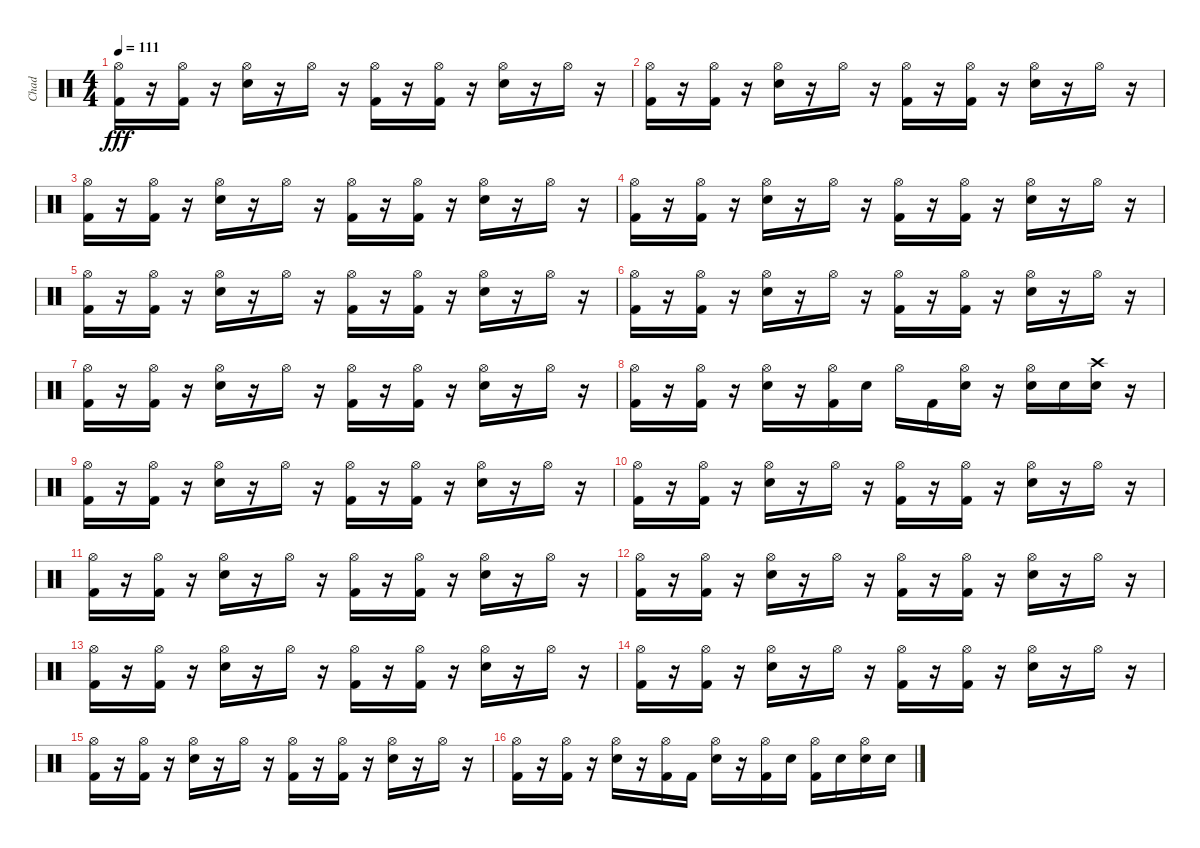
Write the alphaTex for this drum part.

\track ("Chad" "Chad") {instrument percussion}
\staff {score}
\articulation defaults
\ts (4 4)
\tempo 111
\clef neutral
\ks c
("Hi-Hat (open)" "Kick (hit) 2").16{dy fff} r.16 ("Hi-Hat (open)" "Kick (hit) 2").16 r.16 ("Hi-Hat (open)" "Electric Snare (hit)").16 r.16 "Hi-Hat (open)".16 r.16 ("Hi-Hat (open)" "Kick (hit) 2").16 r.16 ("Hi-Hat (open)" "Kick (hit) 2").16 r.16 ("Hi-Hat (open)" "Electric Snare (hit)").16 r.16 "Hi-Hat (open)".16 r.16 |
("Hi-Hat (open)" "Kick (hit) 2").16 r.16 ("Hi-Hat (open)" "Kick (hit) 2").16 r.16 ("Hi-Hat (open)" "Electric Snare (hit)").16 r.16 "Hi-Hat (open)".16 r.16 ("Hi-Hat (open)" "Kick (hit) 2").16 r.16 ("Hi-Hat (open)" "Kick (hit) 2").16 r.16 ("Hi-Hat (open)" "Electric Snare (hit)").16 r.16 "Hi-Hat (open)".16 r.16 |
("Hi-Hat (open)" "Kick (hit) 2").16 r.16 ("Hi-Hat (open)" "Kick (hit) 2").16 r.16 ("Hi-Hat (open)" "Electric Snare (hit)").16 r.16 "Hi-Hat (open)".16 r.16 ("Hi-Hat (open)" "Kick (hit) 2").16 r.16 ("Hi-Hat (open)" "Kick (hit) 2").16 r.16 ("Hi-Hat (open)" "Electric Snare (hit)").16 r.16 "Hi-Hat (open)".16 r.16 |
("Hi-Hat (open)" "Kick (hit) 2").16 r.16 ("Hi-Hat (open)" "Kick (hit) 2").16 r.16 ("Hi-Hat (open)" "Electric Snare (hit)").16 r.16 "Hi-Hat (open)".16 r.16 ("Hi-Hat (open)" "Kick (hit) 2").16 r.16 ("Hi-Hat (open)" "Kick (hit) 2").16 r.16 ("Hi-Hat (open)" "Electric Snare (hit)").16 r.16 "Hi-Hat (open)".16 r.16 |
("Hi-Hat (open)" "Kick (hit) 2").16 r.16 ("Hi-Hat (open)" "Kick (hit) 2").16 r.16 ("Hi-Hat (open)" "Electric Snare (hit)").16 r.16 "Hi-Hat (open)".16 r.16 ("Hi-Hat (open)" "Kick (hit) 2").16 r.16 ("Hi-Hat (open)" "Kick (hit) 2").16 r.16 ("Hi-Hat (open)" "Electric Snare (hit)").16 r.16 "Hi-Hat (open)".16 r.16 |
("Hi-Hat (open)" "Kick (hit) 2").16 r.16 ("Hi-Hat (open)" "Kick (hit) 2").16 r.16 ("Hi-Hat (open)" "Electric Snare (hit)").16 r.16 "Hi-Hat (open)".16 r.16 ("Hi-Hat (open)" "Kick (hit) 2").16 r.16 ("Hi-Hat (open)" "Kick (hit) 2").16 r.16 ("Hi-Hat (open)" "Electric Snare (hit)").16 r.16 "Hi-Hat (open)".16 r.16 |
("Hi-Hat (open)" "Kick (hit) 2").16 r.16 ("Hi-Hat (open)" "Kick (hit) 2").16 r.16 ("Hi-Hat (open)" "Electric Snare (hit)").16 r.16 "Hi-Hat (open)".16 r.16 ("Hi-Hat (open)" "Kick (hit) 2").16 r.16 ("Hi-Hat (open)" "Kick (hit) 2").16 r.16 ("Hi-Hat (open)" "Electric Snare (hit)").16 r.16 "Hi-Hat (open)".16 r.16 |
("Hi-Hat (open)" "Kick (hit) 2").16 r.16 ("Hi-Hat (open)" "Kick (hit) 2").16 r.16 ("Hi-Hat (open)" "Electric Snare (hit)").16 r.16 ("Hi-Hat (open)" "Kick (hit) 2").16 "Electric Snare (hit)".16 "Hi-Hat (open)".16 "Kick (hit) 2".16 ("Hi-Hat (open)" "Electric Snare (hit)").16 r.16 ("Hi-Hat (open)" "Electric Snare (hit)").16 "Electric Snare (hit)".16 ("Crash high (hit)" "Electric Snare (hit)").16 r.16 |
("Hi-Hat (open)" "Kick (hit) 2").16 r.16 ("Hi-Hat (open)" "Kick (hit) 2").16 r.16 ("Hi-Hat (open)" "Electric Snare (hit)").16 r.16 "Hi-Hat (open)".16 r.16 ("Hi-Hat (open)" "Kick (hit) 2").16 r.16 ("Hi-Hat (open)" "Kick (hit) 2").16 r.16 ("Hi-Hat (open)" "Electric Snare (hit)").16 r.16 "Hi-Hat (open)".16 r.16 |
("Hi-Hat (open)" "Kick (hit) 2").16 r.16 ("Hi-Hat (open)" "Kick (hit) 2").16 r.16 ("Hi-Hat (open)" "Electric Snare (hit)").16 r.16 "Hi-Hat (open)".16 r.16 ("Hi-Hat (open)" "Kick (hit) 2").16 r.16 ("Hi-Hat (open)" "Kick (hit) 2").16 r.16 ("Hi-Hat (open)" "Electric Snare (hit)").16 r.16 "Hi-Hat (open)".16 r.16 |
("Hi-Hat (open)" "Kick (hit) 2").16 r.16 ("Hi-Hat (open)" "Kick (hit) 2").16 r.16 ("Hi-Hat (open)" "Electric Snare (hit)").16 r.16 "Hi-Hat (open)".16 r.16 ("Hi-Hat (open)" "Kick (hit) 2").16 r.16 ("Hi-Hat (open)" "Kick (hit) 2").16 r.16 ("Hi-Hat (open)" "Electric Snare (hit)").16 r.16 "Hi-Hat (open)".16 r.16 |
("Hi-Hat (open)" "Kick (hit) 2").16 r.16 ("Hi-Hat (open)" "Kick (hit) 2").16 r.16 ("Hi-Hat (open)" "Electric Snare (hit)").16 r.16 "Hi-Hat (open)".16 r.16 ("Hi-Hat (open)" "Kick (hit) 2").16 r.16 ("Hi-Hat (open)" "Kick (hit) 2").16 r.16 ("Hi-Hat (open)" "Electric Snare (hit)").16 r.16 "Hi-Hat (open)".16 r.16 |
("Hi-Hat (open)" "Kick (hit) 2").16 r.16 ("Hi-Hat (open)" "Kick (hit) 2").16 r.16 ("Hi-Hat (open)" "Electric Snare (hit)").16 r.16 "Hi-Hat (open)".16 r.16 ("Hi-Hat (open)" "Kick (hit) 2").16 r.16 ("Hi-Hat (open)" "Kick (hit) 2").16 r.16 ("Hi-Hat (open)" "Electric Snare (hit)").16 r.16 "Hi-Hat (open)".16 r.16 |
("Hi-Hat (open)" "Kick (hit) 2").16 r.16 ("Hi-Hat (open)" "Kick (hit) 2").16 r.16 ("Hi-Hat (open)" "Electric Snare (hit)").16 r.16 "Hi-Hat (open)".16 r.16 ("Hi-Hat (open)" "Kick (hit) 2").16 r.16 ("Hi-Hat (open)" "Kick (hit) 2").16 r.16 ("Hi-Hat (open)" "Electric Snare (hit)").16 r.16 "Hi-Hat (open)".16 r.16 |
("Hi-Hat (open)" "Kick (hit) 2").16 r.16 ("Hi-Hat (open)" "Kick (hit) 2").16 r.16 ("Hi-Hat (open)" "Electric Snare (hit)").16 r.16 "Hi-Hat (open)".16 r.16 ("Hi-Hat (open)" "Kick (hit) 2").16 r.16 ("Hi-Hat (open)" "Kick (hit) 2").16 r.16 ("Hi-Hat (open)" "Electric Snare (hit)").16 r.16 "Hi-Hat (open)".16 r.16 |
("Hi-Hat (open)" "Kick (hit) 2").16 r.16 ("Hi-Hat (open)" "Kick (hit) 2").16 r.16 ("Hi-Hat (open)" "Electric Snare (hit)").16 r.16 ("Hi-Hat (open)" "Kick (hit) 2").16 "Kick (hit) 2".16 ("Hi-Hat (open)" "Electric Snare (hit)").16 r.16 ("Hi-Hat (open)" "Kick (hit) 2").16 "Electric Snare (hit)".16 ("Hi-Hat (open)" "Kick (hit) 2").16 "Electric Snare (hit)".16 ("Hi-Hat (open)" "Electric Snare (hit)").16 "Electric Snare (hit)".16
